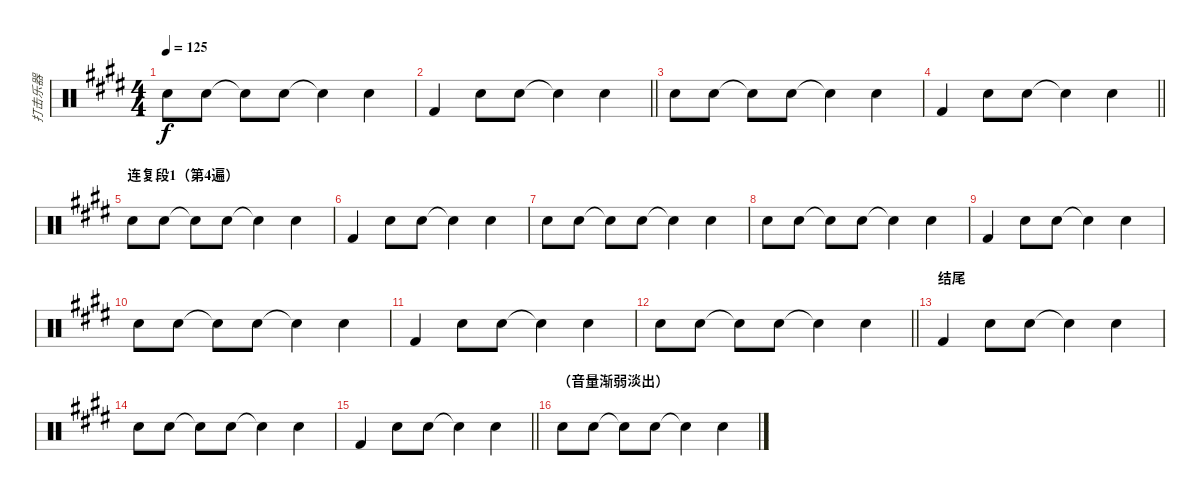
\track ("打击乐器" "打击乐器") {instrument percussion}
\staff {score}
\articulation defaults
\ts (4 4)
\tempo 125
\clef neutral
\ks e "Snare (hit) 2".8{dy f} "Snare (hit) 2".8 "Snare (hit)"{t}.8 "Snare (hit) 2".8 "Snare (hit)"{t}.4 "Snare (hit) 2".4
|
\barLineRight lightlight "Kick (hit) 2".4 "Snare (hit) 2".8 "Snare (hit) 2".8 "Snare (hit)"{t}.4 "Snare (hit) 2".4
|
"Snare (hit) 2".8 "Snare (hit) 2".8 "Snare (hit)"{t}.8 "Snare (hit) 2".8 "Snare (hit)"{t}.4 "Snare (hit) 2".4 |
\barLineRight lightlight "Kick (hit) 2".4 "Snare (hit) 2".8 "Snare (hit) 2".8 "Snare (hit)"{t}.4 "Snare (hit) 2".4
|
\section ("" "连复段1（第4遍）")
"Snare (hit) 2".8 "Snare (hit) 2".8 "Snare (hit)"{t}.8 "Snare (hit) 2".8 "Snare (hit)"{t}.4 "Snare (hit) 2".4 |
"Kick (hit) 2".4 "Snare (hit) 2".8 "Snare (hit) 2".8 "Snare (hit)"{t}.4 "Snare (hit) 2".4 |
"Snare (hit) 2".8 "Snare (hit) 2".8 "Snare (hit)"{t}.8 "Snare (hit) 2".8 "Snare (hit)"{t}.4 "Snare (hit) 2".4 |
"Snare (hit) 2".8 "Snare (hit) 2".8 "Snare (hit)"{t}.8 "Snare (hit) 2".8 "Snare (hit)"{t}.4 "Snare (hit) 2".4 |
"Kick (hit) 2".4 "Snare (hit) 2".8 "Snare (hit) 2".8 "Snare (hit)"{t}.4 "Snare (hit) 2".4 |
"Snare (hit) 2".8 "Snare (hit) 2".8 "Snare (hit)"{t}.8 "Snare (hit) 2".8 "Snare (hit)"{t}.4 "Snare (hit) 2".4 |
"Kick (hit) 2".4 "Snare (hit) 2".8 "Snare (hit) 2".8 "Snare (hit)"{t}.4 "Snare (hit) 2".4 |
\barLineRight lightlight "Snare (hit) 2".8 "Snare (hit) 2".8 "Snare (hit)"{t}.8 "Snare (hit) 2".8 "Snare (hit)"{t}.4 "Snare (hit) 2".4
|
\section ("" "结尾")
"Kick (hit) 2".4 "Snare (hit) 2".8 "Snare (hit) 2".8 "Snare (hit)"{t}.4 "Snare (hit) 2".4 |
"Snare (hit) 2".8 "Snare (hit) 2".8 "Snare (hit)"{t}.8 "Snare (hit) 2".8 "Snare (hit)"{t}.4 "Snare (hit) 2".4 |
\barLineRight lightlight "Kick (hit) 2".4 "Snare (hit) 2".8 "Snare (hit) 2".8 "Snare (hit)"{t}.4 "Snare (hit) 2".4
|
\section ("" "（音量渐弱淡出）")
"Snare (hit) 2".8 "Snare (hit) 2".8 "Snare (hit)"{t}.8 "Snare (hit) 2".8 "Snare (hit)"{t}.4 "Snare (hit) 2".4
